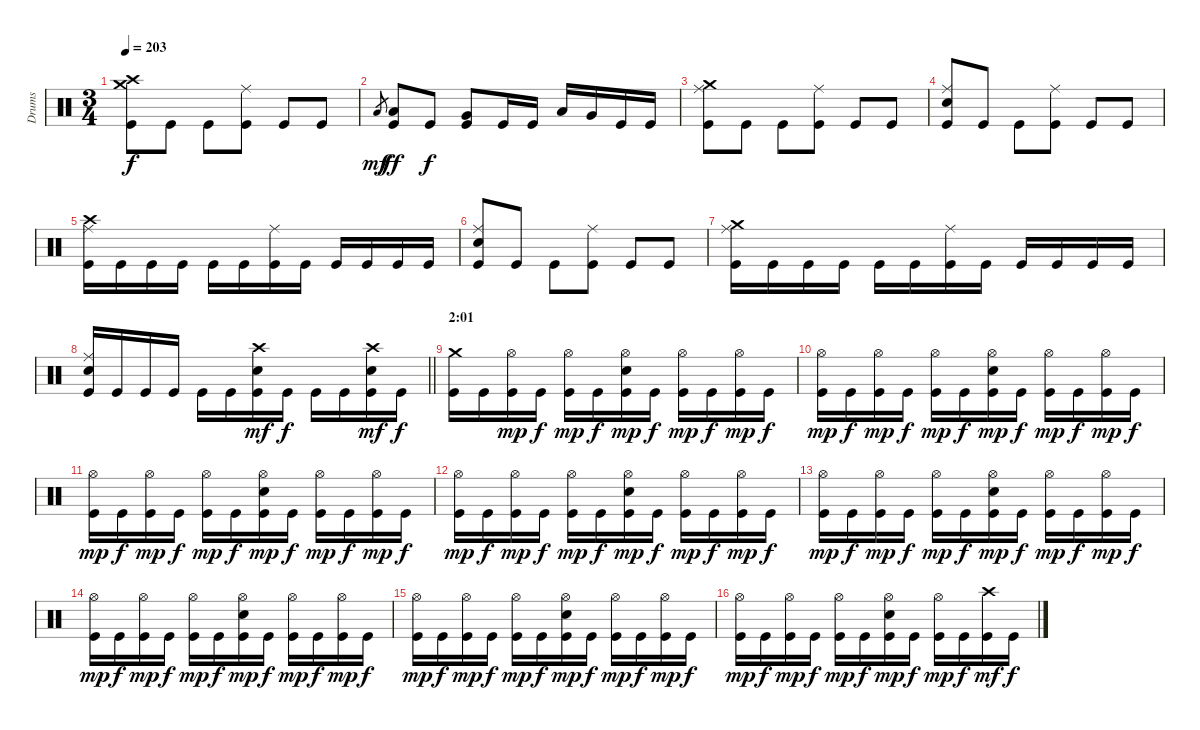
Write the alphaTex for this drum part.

\track ("Drums" "Drums") {instrument percussion}
\staff {score}
\articulation defaults
\ts (3 4)
\tempo 203
\clef neutral
\ks c
("Crash medium (hit)" "Crash high (hit)" "Kick (hit)").8{dy f} "Kick (hit)".8 "Kick (hit)".8 ("Ride (middle)" "Kick (hit)").8 "Kick (hit)".8 "Kick (hit)".8 |
"Low Tom (hit)".8{gr dy mf} ("Low Tom (hit)" "Kick (hit)").8{dy ff} "Kick (hit)".8{dy f} ("Very Low Tom (hit)" "Kick (hit)").8 "Kick (hit)".16 "Kick (hit)".16 "Low Tom (hit)".16 "Very Low Tom (hit)".16 "Kick (hit)".16 "Kick (hit)".16 |
("Crash medium (hit)" "Ride (middle)" "Kick (hit)").8 "Kick (hit)".8 "Kick (hit)".8 ("Ride (middle)" "Kick (hit)").8 "Kick (hit)".8 "Kick (hit)".8 |
("Ride (middle)" "Electric Snare (hit)" "Kick (hit)").8 "Kick (hit)".8 "Kick (hit)".8 ("Ride (middle)" "Kick (hit)").8 "Kick (hit)".8 "Kick (hit)".8 |
("Crash high (hit)" "Ride (middle)" "Kick (hit)").16 "Kick (hit)".16 "Kick (hit)".16 "Kick (hit)".16 "Kick (hit)".16 "Kick (hit)".16 ("Ride (middle)" "Kick (hit)").16 "Kick (hit)".16 "Kick (hit)".16 "Kick (hit)".16 "Kick (hit)".16 "Kick (hit)".16 |
("Ride (middle)" "Electric Snare (hit)" "Kick (hit)").8 "Kick (hit)".8 "Kick (hit)".8 ("Ride (middle)" "Kick (hit)").8 "Kick (hit)".8 "Kick (hit)".8 |
("Crash medium (hit)" "Ride (middle)" "Kick (hit)").16 "Kick (hit)".16 "Kick (hit)".16 "Kick (hit)".16 "Kick (hit)".16 "Kick (hit)".16 ("Ride (middle)" "Kick (hit)").16 "Kick (hit)".16 "Kick (hit)".16 "Kick (hit)".16 "Kick (hit)".16 "Kick (hit)".16 |
\barLineRight lightlight
("Ride (middle)" "Electric Snare (hit)" "Kick (hit)").16 "Kick (hit)".16 "Kick (hit)".16 "Kick (hit)".16 "Kick (hit)".16 "Kick (hit)".16 ("Crash high (hit)" "Electric Snare (hit)" "Kick (hit)").16{dy mf} "Kick (hit)".16{dy f} "Kick (hit)".16 "Kick (hit)".16 ("Crash high (hit)" "Electric Snare (hit)" "Kick (hit)").16{dy mf} "Kick (hit)".16{dy f} |
\section ("" "2:01")
("Crash medium (hit)" "Kick (hit)").16 "Kick (hit)".16 ("Hi-Hat (open)" "Kick (hit)").16{dy mp} "Kick (hit)".16{dy f} ("Hi-Hat (open)" "Kick (hit)").16{dy mp} "Kick (hit)".16{dy f} ("Hi-Hat (open)" "Electric Snare (hit)" "Kick (hit)").16{dy mp} "Kick (hit)".16{dy f} ("Hi-Hat (open)" "Kick (hit)").16{dy mp} "Kick (hit)".16{dy f} ("Hi-Hat (open)" "Kick (hit)").16{dy mp} "Kick (hit)".16{dy f} |
("Hi-Hat (open)" "Kick (hit)").16{dy mp} "Kick (hit)".16{dy f} ("Hi-Hat (open)" "Kick (hit)").16{dy mp} "Kick (hit)".16{dy f} ("Hi-Hat (open)" "Kick (hit)").16{dy mp} "Kick (hit)".16{dy f} ("Hi-Hat (open)" "Electric Snare (hit)" "Kick (hit)").16{dy mp} "Kick (hit)".16{dy f} ("Hi-Hat (open)" "Kick (hit)").16{dy mp} "Kick (hit)".16{dy f} ("Hi-Hat (open)" "Kick (hit)").16{dy mp} "Kick (hit)".16{dy f} |
("Hi-Hat (open)" "Kick (hit)").16{dy mp} "Kick (hit)".16{dy f} ("Hi-Hat (open)" "Kick (hit)").16{dy mp} "Kick (hit)".16{dy f} ("Hi-Hat (open)" "Kick (hit)").16{dy mp} "Kick (hit)".16{dy f} ("Hi-Hat (open)" "Electric Snare (hit)" "Kick (hit)").16{dy mp} "Kick (hit)".16{dy f} ("Hi-Hat (open)" "Kick (hit)").16{dy mp} "Kick (hit)".16{dy f} ("Hi-Hat (open)" "Kick (hit)").16{dy mp} "Kick (hit)".16{dy f} |
("Hi-Hat (open)" "Kick (hit)").16{dy mp} "Kick (hit)".16{dy f} ("Hi-Hat (open)" "Kick (hit)").16{dy mp} "Kick (hit)".16{dy f} ("Hi-Hat (open)" "Kick (hit)").16{dy mp} "Kick (hit)".16{dy f} ("Hi-Hat (open)" "Electric Snare (hit)" "Kick (hit)").16{dy mp} "Kick (hit)".16{dy f} ("Hi-Hat (open)" "Kick (hit)").16{dy mp} "Kick (hit)".16{dy f} ("Hi-Hat (open)" "Kick (hit)").16{dy mp} "Kick (hit)".16{dy f} |
("Hi-Hat (open)" "Kick (hit)").16{dy mp} "Kick (hit)".16{dy f} ("Hi-Hat (open)" "Kick (hit)").16{dy mp} "Kick (hit)".16{dy f} ("Hi-Hat (open)" "Kick (hit)").16{dy mp} "Kick (hit)".16{dy f} ("Hi-Hat (open)" "Electric Snare (hit)" "Kick (hit)").16{dy mp} "Kick (hit)".16{dy f} ("Hi-Hat (open)" "Kick (hit)").16{dy mp} "Kick (hit)".16{dy f} ("Hi-Hat (open)" "Kick (hit)").16{dy mp} "Kick (hit)".16{dy f} |
("Hi-Hat (open)" "Kick (hit)").16{dy mp} "Kick (hit)".16{dy f} ("Hi-Hat (open)" "Kick (hit)").16{dy mp} "Kick (hit)".16{dy f} ("Hi-Hat (open)" "Kick (hit)").16{dy mp} "Kick (hit)".16{dy f} ("Hi-Hat (open)" "Electric Snare (hit)" "Kick (hit)").16{dy mp} "Kick (hit)".16{dy f} ("Hi-Hat (open)" "Kick (hit)").16{dy mp} "Kick (hit)".16{dy f} ("Hi-Hat (open)" "Kick (hit)").16{dy mp} "Kick (hit)".16{dy f} |
("Hi-Hat (open)" "Kick (hit)").16{dy mp} "Kick (hit)".16{dy f} ("Hi-Hat (open)" "Kick (hit)").16{dy mp} "Kick (hit)".16{dy f} ("Hi-Hat (open)" "Kick (hit)").16{dy mp} "Kick (hit)".16{dy f} ("Hi-Hat (open)" "Electric Snare (hit)" "Kick (hit)").16{dy mp} "Kick (hit)".16{dy f} ("Hi-Hat (open)" "Kick (hit)").16{dy mp} "Kick (hit)".16{dy f} ("Hi-Hat (open)" "Kick (hit)").16{dy mp} "Kick (hit)".16{dy f} |
("Hi-Hat (open)" "Kick (hit)").16{dy mp} "Kick (hit)".16{dy f} ("Hi-Hat (open)" "Kick (hit)").16{dy mp} "Kick (hit)".16{dy f} ("Hi-Hat (open)" "Kick (hit)").16{dy mp} "Kick (hit)".16{dy f} ("Hi-Hat (open)" "Electric Snare (hit)" "Kick (hit)").16{dy mp} "Kick (hit)".16{dy f} ("Hi-Hat (open)" "Kick (hit)").16{dy mp} "Kick (hit)".16{dy f} ("Crash high (hit)" "Kick (hit)").16{dy mf} "Kick (hit)".16{dy f}
